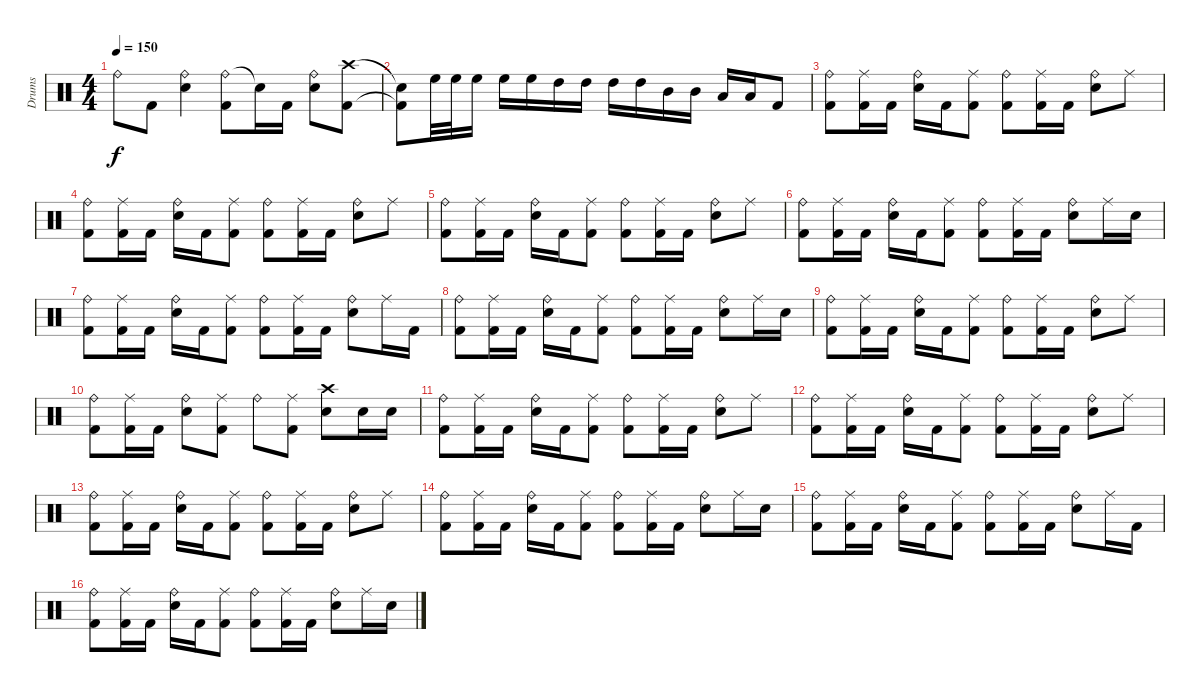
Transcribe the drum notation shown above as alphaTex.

\track ("Drums" "Drums") {instrument percussion}
\staff {score}
\articulation defaults
\ts (4 4)
\tempo 150
\clef neutral
\ks c "Ride (bell)".8{dy f} "Kick (hit) 2".8
("Ride (bell)" "Electric Snare (hit)").4 ("Ride (bell)" "Kick (hit) 2").8 "Snare (hit)"{t}.16 "Kick (hit) 2".16 ("Ride (bell)" "Electric Snare (hit)").8 ("Crash high (hit)" "Kick (hit) 2").8 |
("Snare (hit)"{t} "Kick (hit) 2"{t}).8 "High Floor Tom (hit)".32 "High Floor Tom (hit)".32 "High Floor Tom (hit)".16 "High Floor Tom (hit)".16 "High Floor Tom (hit)".16 "High Tom (hit)".16 "High Tom (hit)".16 "High Tom (hit)".16 "High Tom (hit)".16 "Mid Tom (hit)".16 "Mid Tom (hit)".16 "Low Tom (hit)".16 "Low Tom (hit)".16 "Kick (hit) 2".8 |
("Ride (bell)" "Kick (hit) 2").8 ("Ride (middle)" "Kick (hit) 2").16 "Kick (hit) 2".16 ("Ride (bell)" "Electric Snare (hit)").16 "Kick (hit) 2".16 ("Ride (middle)" "Kick (hit) 2").8 ("Ride (bell)" "Kick (hit) 2").8 ("Ride (middle)" "Kick (hit) 2").16 "Kick (hit) 2".16 ("Ride (bell)" "Electric Snare (hit)").8 "Ride (middle)".8 |
("Ride (bell)" "Kick (hit) 2").8 ("Ride (middle)" "Kick (hit) 2").16 "Kick (hit) 2".16 ("Ride (bell)" "Electric Snare (hit)").16 "Kick (hit) 2".16 ("Ride (middle)" "Kick (hit) 2").8 ("Ride (bell)" "Kick (hit) 2").8 ("Ride (middle)" "Kick (hit) 2").16 "Kick (hit) 2".16 ("Ride (bell)" "Electric Snare (hit)").8 "Ride (middle)".8 |
("Ride (bell)" "Kick (hit) 2").8 ("Ride (middle)" "Kick (hit) 2").16 "Kick (hit) 2".16 ("Ride (bell)" "Electric Snare (hit)").16 "Kick (hit) 2".16 ("Ride (middle)" "Kick (hit) 2").8 ("Ride (bell)" "Kick (hit) 2").8 ("Ride (middle)" "Kick (hit) 2").16 "Kick (hit) 2".16 ("Ride (bell)" "Electric Snare (hit)").8 "Ride (middle)".8 |
("Ride (bell)" "Kick (hit) 2").8 ("Ride (middle)" "Kick (hit) 2").16 "Kick (hit) 2".16 ("Ride (bell)" "Electric Snare (hit)").16 "Kick (hit) 2".16 ("Ride (middle)" "Kick (hit) 2").8 ("Ride (bell)" "Kick (hit) 2").8 ("Ride (middle)" "Kick (hit) 2").16 "Kick (hit) 2".16 ("Ride (bell)" "Electric Snare (hit)").8 "Ride (middle)".16 "Electric Snare (hit)".16 |
("Ride (bell)" "Kick (hit) 2").8 ("Ride (middle)" "Kick (hit) 2").16 "Kick (hit) 2".16 ("Ride (bell)" "Electric Snare (hit)").16 "Kick (hit) 2".16 ("Ride (middle)" "Kick (hit) 2").8 ("Ride (bell)" "Kick (hit) 2").8 ("Ride (middle)" "Kick (hit) 2").16 "Kick (hit) 2".16 ("Ride (bell)" "Electric Snare (hit)").8 "Ride (middle)".16 "Kick (hit) 2".16 |
("Ride (bell)" "Kick (hit) 2").8 ("Ride (middle)" "Kick (hit) 2").16 "Kick (hit) 2".16 ("Ride (bell)" "Electric Snare (hit)").16 "Kick (hit) 2".16 ("Ride (middle)" "Kick (hit) 2").8 ("Ride (bell)" "Kick (hit) 2").8 ("Ride (middle)" "Kick (hit) 2").16 "Kick (hit) 2".16 ("Ride (bell)" "Electric Snare (hit)").8 "Ride (middle)".16 "Electric Snare (hit)".16 |
("Ride (bell)" "Kick (hit) 2").8 ("Ride (middle)" "Kick (hit) 2").16 "Kick (hit) 2".16 ("Ride (bell)" "Electric Snare (hit)").16 "Kick (hit) 2".16 ("Ride (middle)" "Kick (hit) 2").8 ("Ride (bell)" "Kick (hit) 2").8 ("Ride (middle)" "Kick (hit) 2").16 "Kick (hit) 2".16 ("Ride (bell)" "Electric Snare (hit)").8 "Ride (middle)".8 |
("Ride (bell)" "Kick (hit) 2").8 ("Ride (middle)" "Kick (hit) 2").16 "Kick (hit) 2".16 ("Ride (bell)" "Electric Snare (hit)").8 ("Ride (middle)" "Kick (hit) 2").8 "Ride (bell)".8 ("Ride (middle)" "Kick (hit) 2").8 ("Crash high (hit)" "Electric Snare (hit)").8 "Electric Snare (hit)".16 "Electric Snare (hit)".16 |
("Ride (bell)" "Kick (hit) 2").8 ("Ride (middle)" "Kick (hit) 2").16 "Kick (hit) 2".16 ("Ride (bell)" "Electric Snare (hit)").16 "Kick (hit) 2".16 ("Ride (middle)" "Kick (hit) 2").8 ("Ride (bell)" "Kick (hit) 2").8 ("Ride (middle)" "Kick (hit) 2").16 "Kick (hit) 2".16 ("Ride (bell)" "Electric Snare (hit)").8 "Ride (middle)".8 |
("Ride (bell)" "Kick (hit) 2").8 ("Ride (middle)" "Kick (hit) 2").16 "Kick (hit) 2".16 ("Ride (bell)" "Electric Snare (hit)").16 "Kick (hit) 2".16 ("Ride (middle)" "Kick (hit) 2").8 ("Ride (bell)" "Kick (hit) 2").8 ("Ride (middle)" "Kick (hit) 2").16 "Kick (hit) 2".16 ("Ride (bell)" "Electric Snare (hit)").8 "Ride (middle)".8 |
("Ride (bell)" "Kick (hit) 2").8 ("Ride (middle)" "Kick (hit) 2").16 "Kick (hit) 2".16 ("Ride (bell)" "Electric Snare (hit)").16 "Kick (hit) 2".16 ("Ride (middle)" "Kick (hit) 2").8 ("Ride (bell)" "Kick (hit) 2").8 ("Ride (middle)" "Kick (hit) 2").16 "Kick (hit) 2".16 ("Ride (bell)" "Electric Snare (hit)").8 "Ride (middle)".8 |
("Ride (bell)" "Kick (hit) 2").8 ("Ride (middle)" "Kick (hit) 2").16 "Kick (hit) 2".16 ("Ride (bell)" "Electric Snare (hit)").16 "Kick (hit) 2".16 ("Ride (middle)" "Kick (hit) 2").8 ("Ride (bell)" "Kick (hit) 2").8 ("Ride (middle)" "Kick (hit) 2").16 "Kick (hit) 2".16 ("Ride (bell)" "Electric Snare (hit)").8 "Ride (middle)".16 "Electric Snare (hit)".16 |
("Ride (bell)" "Kick (hit) 2").8 ("Ride (middle)" "Kick (hit) 2").16 "Kick (hit) 2".16 ("Ride (bell)" "Electric Snare (hit)").16 "Kick (hit) 2".16 ("Ride (middle)" "Kick (hit) 2").8 ("Ride (bell)" "Kick (hit) 2").8 ("Ride (middle)" "Kick (hit) 2").16 "Kick (hit) 2".16 ("Ride (bell)" "Electric Snare (hit)").8 "Ride (middle)".16 "Kick (hit) 2".16 |
("Ride (bell)" "Kick (hit) 2").8 ("Ride (middle)" "Kick (hit) 2").16 "Kick (hit) 2".16 ("Ride (bell)" "Electric Snare (hit)").16 "Kick (hit) 2".16 ("Ride (middle)" "Kick (hit) 2").8 ("Ride (bell)" "Kick (hit) 2").8 ("Ride (middle)" "Kick (hit) 2").16 "Kick (hit) 2".16 ("Ride (bell)" "Electric Snare (hit)").8 "Ride (middle)".16 "Electric Snare (hit)".16
